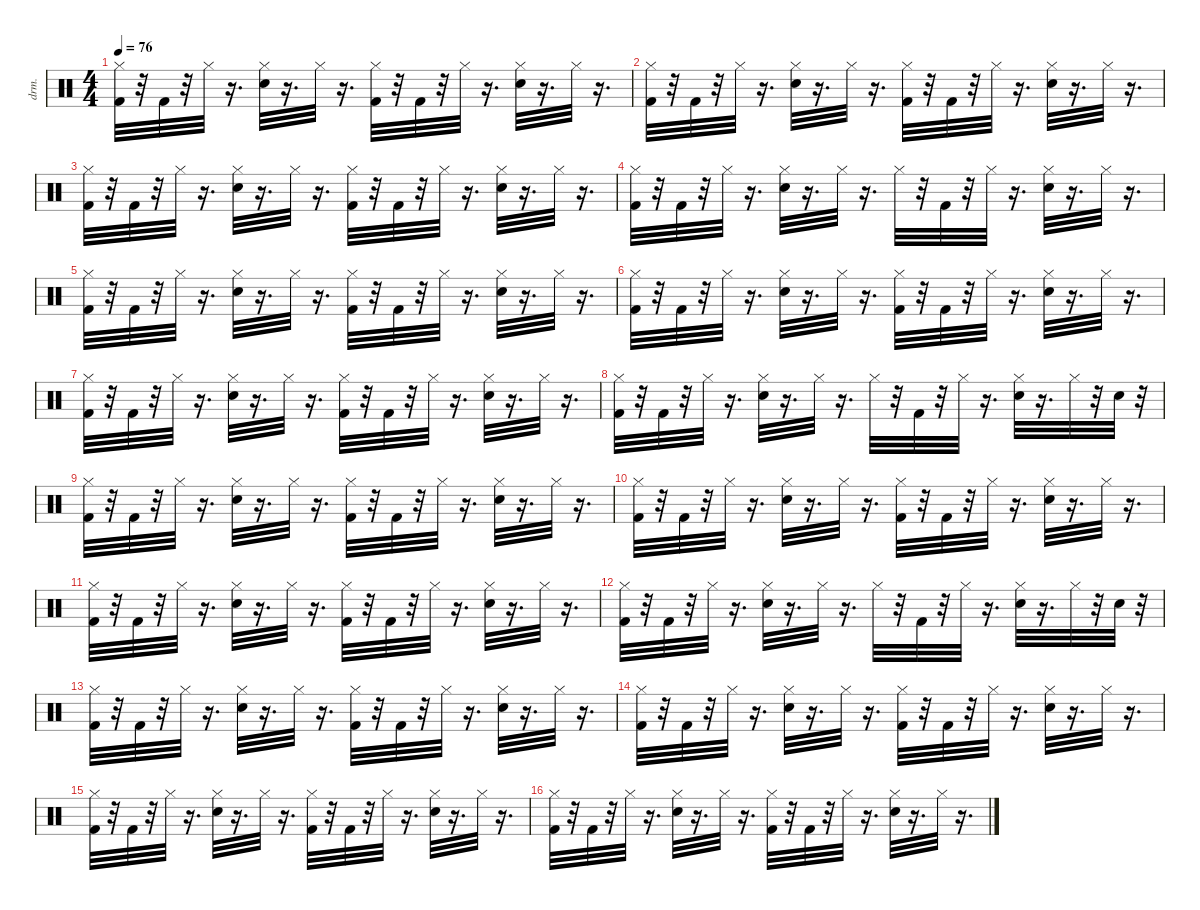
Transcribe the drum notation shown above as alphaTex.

\defaultSystemsLayout 4
\hideDynamics
\bracketExtendMode nobrackets
\otherSystemsTrackNameOrientation horizontal
\track ("Drums" "drm.") {instrument percussion}
\staff {score}
\articulation defaults
\ts (4 4)
\beaming (8 2 2 2 2)
\tempo 76
\clef neutral
\ks c
("Hi-Hat (closed)" "Kick (hit) 2").32{dy fff} r.32 "Kick (hit) 2".32 r.32 "Hi-Hat (closed)".32 r.16{d} ("Hi-Hat (closed)" "Snare (hit) 2").32 r.16{d} "Hi-Hat (closed)".32 r.16{d} ("Hi-Hat (closed)" "Kick (hit) 2").32 r.32 "Kick (hit) 2".32 r.32 "Hi-Hat (closed)".32 r.16{d} ("Hi-Hat (closed)" "Snare (hit) 2").32 r.16{d} "Hi-Hat (closed)".32 r.16{d} |
("Kick (hit) 2" "Hi-Hat (closed)").32 r.32 "Kick (hit) 2".32 r.32 "Hi-Hat (closed)".32 r.16{d} ("Snare (hit) 2" "Hi-Hat (closed)").32 r.16{d} "Hi-Hat (closed)".32 r.16{d} ("Kick (hit) 2" "Hi-Hat (closed)").32 r.32 "Kick (hit) 2".32 r.32 "Hi-Hat (closed)".32 r.16{d} ("Snare (hit) 2" "Hi-Hat (closed)").32 r.16{d} "Hi-Hat (closed)".32 r.16{d} |
("Hi-Hat (closed)" "Kick (hit) 2").32 r.32 "Kick (hit) 2".32 r.32 "Hi-Hat (closed)".32 r.16{d} ("Hi-Hat (closed)" "Snare (hit) 2").32 r.16{d} "Hi-Hat (closed)".32 r.16{d} ("Hi-Hat (closed)" "Kick (hit) 2").32 r.32 "Kick (hit) 2".32 r.32 "Hi-Hat (closed)".32 r.16{d} ("Hi-Hat (closed)" "Snare (hit) 2").32 r.16{d} "Hi-Hat (closed)".32 r.16{d} |
("Kick (hit) 2" "Hi-Hat (closed)").32 r.32 "Kick (hit) 2".32 r.32 "Hi-Hat (closed)".32 r.16{d} ("Snare (hit) 2" "Hi-Hat (closed)").32 r.16{d} "Hi-Hat (closed)".32 r.16{d} "Hi-Hat (closed)".32 r.32 "Kick (hit) 2".32 r.32 "Hi-Hat (closed)".32 r.16{d} ("Snare (hit) 2" "Hi-Hat (closed)").32 r.16{d} "Hi-Hat (closed)".32 r.16{d} |
("Hi-Hat (closed)" "Kick (hit) 2").32 r.32 "Kick (hit) 2".32 r.32 "Hi-Hat (closed)".32 r.16{d} ("Hi-Hat (closed)" "Snare (hit) 2").32 r.16{d} "Hi-Hat (closed)".32 r.16{d} ("Hi-Hat (closed)" "Kick (hit) 2").32 r.32 "Kick (hit) 2".32 r.32 "Hi-Hat (closed)".32 r.16{d} ("Hi-Hat (closed)" "Snare (hit) 2").32 r.16{d} "Hi-Hat (closed)".32 r.16{d} |
("Kick (hit) 2" "Hi-Hat (closed)").32 r.32 "Kick (hit) 2".32 r.32 "Hi-Hat (closed)".32 r.16{d} ("Snare (hit) 2" "Hi-Hat (closed)").32 r.16{d} "Hi-Hat (closed)".32 r.16{d} ("Kick (hit) 2" "Hi-Hat (closed)").32 r.32 "Kick (hit) 2".32 r.32 "Hi-Hat (closed)".32 r.16{d} ("Snare (hit) 2" "Hi-Hat (closed)").32 r.16{d} "Hi-Hat (closed)".32 r.16{d} |
("Hi-Hat (closed)" "Kick (hit) 2").32 r.32 "Kick (hit) 2".32 r.32 "Hi-Hat (closed)".32 r.16{d} ("Hi-Hat (closed)" "Snare (hit) 2").32 r.16{d} "Hi-Hat (closed)".32 r.16{d} ("Hi-Hat (closed)" "Kick (hit) 2").32 r.32 "Kick (hit) 2".32 r.32 "Hi-Hat (closed)".32 r.16{d} ("Hi-Hat (closed)" "Snare (hit) 2").32 r.16{d} "Hi-Hat (closed)".32 r.16{d} |
("Kick (hit) 2" "Hi-Hat (closed)").32 r.32 "Kick (hit) 2".32 r.32 "Hi-Hat (closed)".32 r.16{d} ("Snare (hit) 2" "Hi-Hat (closed)").32 r.16{d} "Hi-Hat (closed)".32 r.16{d} "Hi-Hat (closed)".32 r.32 "Kick (hit) 2".32 r.32 "Hi-Hat (closed)".32 r.16{d} ("Snare (hit) 2" "Hi-Hat (closed)").32 r.16{d} "Hi-Hat (closed)".32 r.32 "Snare (hit) 2".32 r.32 |
("Hi-Hat (closed)" "Kick (hit) 2").32 r.32 "Kick (hit) 2".32 r.32 "Hi-Hat (closed)".32 r.16{d} ("Hi-Hat (closed)" "Snare (hit) 2").32 r.16{d} "Hi-Hat (closed)".32 r.16{d} ("Hi-Hat (closed)" "Kick (hit) 2").32 r.32 "Kick (hit) 2".32 r.32 "Hi-Hat (closed)".32 r.16{d} ("Hi-Hat (closed)" "Snare (hit) 2").32 r.16{d} "Hi-Hat (closed)".32 r.16{d} |
("Kick (hit) 2" "Hi-Hat (closed)").32 r.32 "Kick (hit) 2".32 r.32 "Hi-Hat (closed)".32 r.16{d} ("Snare (hit) 2" "Hi-Hat (closed)").32 r.16{d} "Hi-Hat (closed)".32 r.16{d} ("Kick (hit) 2" "Hi-Hat (closed)").32 r.32 "Kick (hit) 2".32 r.32 "Hi-Hat (closed)".32 r.16{d} ("Snare (hit) 2" "Hi-Hat (closed)").32 r.16{d} "Hi-Hat (closed)".32 r.16{d} |
("Hi-Hat (closed)" "Kick (hit) 2").32 r.32 "Kick (hit) 2".32 r.32 "Hi-Hat (closed)".32 r.16{d} ("Hi-Hat (closed)" "Snare (hit) 2").32 r.16{d} "Hi-Hat (closed)".32 r.16{d} ("Hi-Hat (closed)" "Kick (hit) 2").32 r.32 "Kick (hit) 2".32 r.32 "Hi-Hat (closed)".32 r.16{d} ("Hi-Hat (closed)" "Snare (hit) 2").32 r.16{d} "Hi-Hat (closed)".32 r.16{d} |
("Kick (hit) 2" "Hi-Hat (closed)").32 r.32 "Kick (hit) 2".32 r.32 "Hi-Hat (closed)".32 r.16{d} ("Snare (hit) 2" "Hi-Hat (closed)").32 r.16{d} "Hi-Hat (closed)".32 r.16{d} "Hi-Hat (closed)".32 r.32 "Kick (hit) 2".32 r.32 "Hi-Hat (closed)".32 r.16{d} ("Snare (hit) 2" "Hi-Hat (closed)").32 r.16{d} "Hi-Hat (closed)".32 r.32 "Snare (hit) 2".32 r.32 |
("Hi-Hat (closed)" "Kick (hit) 2").32 r.32 "Kick (hit) 2".32 r.32 "Hi-Hat (closed)".32 r.16{d} ("Hi-Hat (closed)" "Snare (hit) 2").32 r.16{d} "Hi-Hat (closed)".32 r.16{d} ("Hi-Hat (closed)" "Kick (hit) 2").32 r.32 "Kick (hit) 2".32 r.32 "Hi-Hat (closed)".32 r.16{d} ("Hi-Hat (closed)" "Snare (hit) 2").32 r.16{d} "Hi-Hat (closed)".32 r.16{d} |
("Kick (hit) 2" "Hi-Hat (closed)").32 r.32 "Kick (hit) 2".32 r.32 "Hi-Hat (closed)".32 r.16{d} ("Snare (hit) 2" "Hi-Hat (closed)").32 r.16{d} "Hi-Hat (closed)".32 r.16{d} ("Kick (hit) 2" "Hi-Hat (closed)").32 r.32 "Kick (hit) 2".32 r.32 "Hi-Hat (closed)".32 r.16{d} ("Snare (hit) 2" "Hi-Hat (closed)").32 r.16{d} "Hi-Hat (closed)".32 r.16{d} |
("Hi-Hat (closed)" "Kick (hit) 2").32 r.32 "Kick (hit) 2".32 r.32 "Hi-Hat (closed)".32 r.16{d} ("Hi-Hat (closed)" "Snare (hit) 2").32 r.16{d} "Hi-Hat (closed)".32 r.16{d} ("Hi-Hat (closed)" "Kick (hit) 2").32 r.32 "Kick (hit) 2".32 r.32 "Hi-Hat (closed)".32 r.16{d} ("Hi-Hat (closed)" "Snare (hit) 2").32 r.16{d} "Hi-Hat (closed)".32 r.16{d} |
("Kick (hit) 2" "Hi-Hat (closed)").32 r.32 "Kick (hit) 2".32 r.32 "Hi-Hat (closed)".32 r.16{d} ("Snare (hit) 2" "Hi-Hat (closed)").32 r.16{d} "Hi-Hat (closed)".32 r.16{d} ("Kick (hit) 2" "Hi-Hat (closed)").32 r.32 "Kick (hit) 2".32 r.32 "Hi-Hat (closed)".32 r.16{d} ("Snare (hit) 2" "Hi-Hat (closed)").32 r.16{d} "Hi-Hat (closed)".32 r.16{d}
